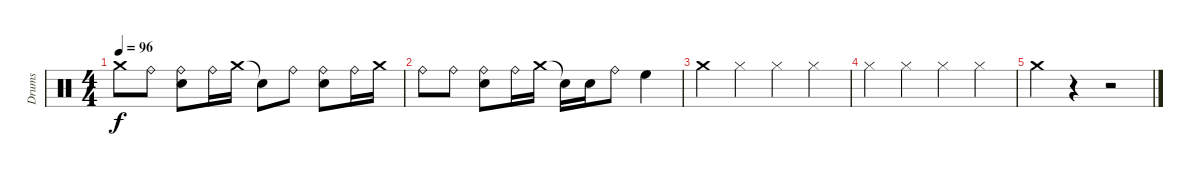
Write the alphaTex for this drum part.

\track ("Drums" "Drums") {instrument percussion}
\staff {score}
\articulation defaults
\ts (4 4)
\tempo 96
\clef neutral
\ks c "Crash medium (hit)".8{dy f} "Ride (bell)".8
("Ride (bell)" "Electric Snare (hit)").8 "Ride (bell)".16 "Crash medium (hit)".16 "Snare (hit)"{t}.8 "Ride (bell)".8 ("Ride (bell)" "Electric Snare (hit)").8 "Ride (bell)".16 "Crash medium (hit)".16 |
"Ride (bell)".8 "Ride (bell)".8 ("Ride (bell)" "Electric Snare (hit)").8 "Ride (bell)".16 "Crash medium (hit)".16 "Snare (hit)"{t}.16 "Electric Snare (hit)".16 "Ride (bell)".8 "High Floor Tom (hit)".4 |
"Crash medium (hit)".4 "Hi-Hat (closed)".4 "Hi-Hat (closed)".4 "Hi-Hat (closed)".4 |
"Hi-Hat (closed)".4 "Hi-Hat (closed)".4 "Hi-Hat (closed)".4 "Hi-Hat (closed)".4 |
"Crash medium (hit)".4 r.4 r.2
